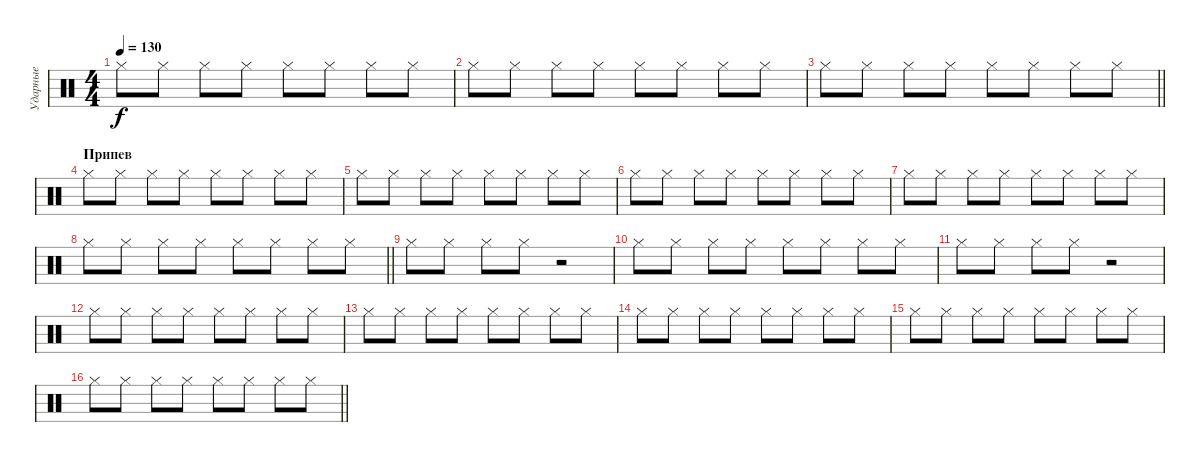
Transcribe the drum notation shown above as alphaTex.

\track ("Ударные" "Ударные") {instrument percussion}
\staff {score}
\articulation defaults
\ts (4 4)
\tempo 130
\clef neutral
\ks c "Hi-Hat (closed)".8{dy f} "Hi-Hat (closed)".8 "Hi-Hat (closed)".8 "Hi-Hat (closed)".8 "Hi-Hat (closed)".8 "Hi-Hat (closed)".8 "Hi-Hat (closed)".8 "Hi-Hat (closed)".8
|
"Hi-Hat (closed)".8 "Hi-Hat (closed)".8 "Hi-Hat (closed)".8 "Hi-Hat (closed)".8 "Hi-Hat (closed)".8 "Hi-Hat (closed)".8 "Hi-Hat (closed)".8 "Hi-Hat (closed)".8 |
\barLineRight lightlight "Hi-Hat (closed)".8 "Hi-Hat (closed)".8 "Hi-Hat (closed)".8 "Hi-Hat (closed)".8 "Hi-Hat (closed)".8 "Hi-Hat (closed)".8 "Hi-Hat (closed)".8 "Hi-Hat (closed)".8
|
\section ("" "Припев")
"Hi-Hat (closed)".8 "Hi-Hat (closed)".8 "Hi-Hat (closed)".8 "Hi-Hat (closed)".8 "Hi-Hat (closed)".8 "Hi-Hat (closed)".8 "Hi-Hat (closed)".8 "Hi-Hat (closed)".8 |
"Hi-Hat (closed)".8 "Hi-Hat (closed)".8 "Hi-Hat (closed)".8 "Hi-Hat (closed)".8 "Hi-Hat (closed)".8 "Hi-Hat (closed)".8 "Hi-Hat (closed)".8 "Hi-Hat (closed)".8 |
"Hi-Hat (closed)".8 "Hi-Hat (closed)".8 "Hi-Hat (closed)".8 "Hi-Hat (closed)".8 "Hi-Hat (closed)".8 "Hi-Hat (closed)".8 "Hi-Hat (closed)".8 "Hi-Hat (closed)".8 |
"Hi-Hat (closed)".8 "Hi-Hat (closed)".8 "Hi-Hat (closed)".8 "Hi-Hat (closed)".8 "Hi-Hat (closed)".8 "Hi-Hat (closed)".8 "Hi-Hat (closed)".8 "Hi-Hat (closed)".8 |
\barLineRight lightlight "Hi-Hat (closed)".8 "Hi-Hat (closed)".8 "Hi-Hat (closed)".8 "Hi-Hat (closed)".8 "Hi-Hat (closed)".8 "Hi-Hat (closed)".8 "Hi-Hat (closed)".8 "Hi-Hat (closed)".8
|
"Hi-Hat (closed)".8 "Hi-Hat (closed)".8 "Hi-Hat (closed)".8 "Hi-Hat (closed)".8 r.2 |
"Hi-Hat (closed)".8 "Hi-Hat (closed)".8 "Hi-Hat (closed)".8 "Hi-Hat (closed)".8 "Hi-Hat (closed)".8 "Hi-Hat (closed)".8 "Hi-Hat (closed)".8 "Hi-Hat (closed)".8 |
"Hi-Hat (closed)".8 "Hi-Hat (closed)".8 "Hi-Hat (closed)".8 "Hi-Hat (closed)".8 r.2 |
"Hi-Hat (closed)".8 "Hi-Hat (closed)".8 "Hi-Hat (closed)".8 "Hi-Hat (closed)".8 "Hi-Hat (closed)".8 "Hi-Hat (closed)".8 "Hi-Hat (closed)".8 "Hi-Hat (closed)".8 |
"Hi-Hat (closed)".8 "Hi-Hat (closed)".8 "Hi-Hat (closed)".8 "Hi-Hat (closed)".8 "Hi-Hat (closed)".8 "Hi-Hat (closed)".8 "Hi-Hat (closed)".8 "Hi-Hat (closed)".8 |
"Hi-Hat (closed)".8 "Hi-Hat (closed)".8 "Hi-Hat (closed)".8 "Hi-Hat (closed)".8 "Hi-Hat (closed)".8 "Hi-Hat (closed)".8 "Hi-Hat (closed)".8 "Hi-Hat (closed)".8 |
"Hi-Hat (closed)".8 "Hi-Hat (closed)".8 "Hi-Hat (closed)".8 "Hi-Hat (closed)".8 "Hi-Hat (closed)".8 "Hi-Hat (closed)".8 "Hi-Hat (closed)".8 "Hi-Hat (closed)".8 |
\barLineRight lightlight "Hi-Hat (closed)".8 "Hi-Hat (closed)".8 "Hi-Hat (closed)".8 "Hi-Hat (closed)".8 "Hi-Hat (closed)".8 "Hi-Hat (closed)".8 "Hi-Hat (closed)".8 "Hi-Hat (closed)".8
